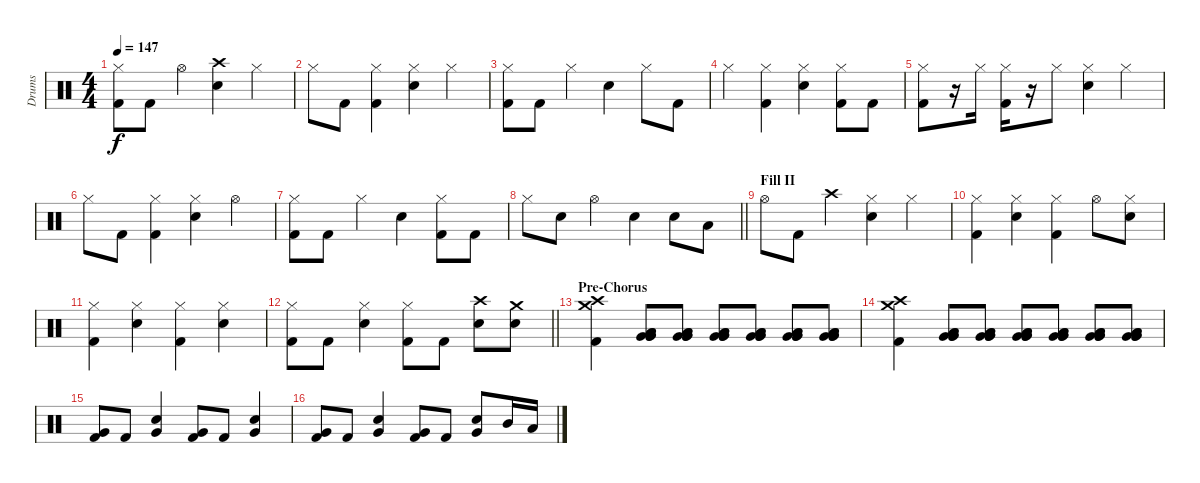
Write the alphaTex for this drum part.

\track ("Drums" "Drums") {instrument percussion}
\staff {score}
\articulation defaults
\ts (4 4)
\tempo 147
\clef neutral
\ks c
("Hi-Hat (closed)" "Kick (hit) 2").8{dy f} "Kick (hit) 2".8 "Hi-Hat (open)".4 ("Crash high (hit)" "Electric Snare (hit)").4 "Hi-Hat (closed)".4 |
"Hi-Hat (closed)".8 "Kick (hit) 2".8 ("Hi-Hat (closed)" "Kick (hit) 2").4 ("Hi-Hat (closed)" "Electric Snare (hit)").4 "Hi-Hat (closed)".4 |
("Hi-Hat (closed)" "Kick (hit) 2").8 "Kick (hit) 2".8 "Hi-Hat (closed)".4 "Electric Snare (hit)".4 "Hi-Hat (closed)".8 "Kick (hit) 2".8 |
"Hi-Hat (closed)".4 ("Hi-Hat (closed)" "Kick (hit) 2").4 ("Hi-Hat (closed)" "Electric Snare (hit)").4 ("Hi-Hat (closed)" "Kick (hit) 2").8 "Kick (hit) 2".8 |
("Hi-Hat (closed)" "Kick (hit) 2").8 r.16 "Hi-Hat (closed)".16 ("Hi-Hat (closed)" "Kick (hit) 2").16 r.16 "Hi-Hat (closed)".8 ("Hi-Hat (closed)" "Electric Snare (hit)").4 "Hi-Hat (closed)".4 |
"Hi-Hat (closed)".8 "Kick (hit) 2".8 ("Hi-Hat (closed)" "Kick (hit) 2").4 ("Hi-Hat (closed)" "Electric Snare (hit)").4 "Hi-Hat (open)".4 |
("Hi-Hat (closed)" "Kick (hit) 2").8 "Kick (hit) 2".8 "Hi-Hat (closed)".4 "Electric Snare (hit)".4 ("Hi-Hat (closed)" "Kick (hit) 2").8 "Kick (hit) 2".8 |
\barLineRight lightlight "Hi-Hat (closed)".8 "Electric Snare (hit)".8 "Hi-Hat (open)".4 "Electric Snare (hit)".4 "Electric Snare (hit)".8 "Low Tom (hit)".8
|
\section ("" "Fill II")
"Hi-Hat (open)".8 "Kick (hit) 2".8 "Crash high (hit)".4 ("Hi-Hat (closed)" "Electric Snare (hit)").4 "Hi-Hat (closed)".4 |
("Hi-Hat (closed)" "Kick (hit) 2").4 ("Hi-Hat (closed)" "Electric Snare (hit)").4 ("Hi-Hat (closed)" "Kick (hit) 2").4 "Hi-Hat (open)".8 ("Hi-Hat (closed)" "Electric Snare (hit)").8 |
("Hi-Hat (closed)" "Kick (hit) 2").4 ("Hi-Hat (closed)" "Electric Snare (hit)").4 ("Hi-Hat (closed)" "Kick (hit) 2").4 ("Hi-Hat (closed)" "Electric Snare (hit)").4 |
\barLineRight lightlight
("Hi-Hat (closed)" "Kick (hit) 2").8 "Kick (hit) 2".8 ("Hi-Hat (closed)" "Electric Snare (hit)").4 ("Hi-Hat (closed)" "Kick (hit) 2").8 "Kick (hit) 2".8 ("Crash high (hit)" "Electric Snare (hit)").8 ("Crash medium (hit)" "Electric Snare (hit)").8 |
\section ("" "Pre-Chorus")
("Crash high (hit)" "Crash medium (hit)" "Kick (hit) 2").4 ("Low Tom (hit)" "Low Tom (hit)" "Very Low Tom (hit)" "Very Low Tom (hit)" "Very Low Tom (hit)").8 ("Low Tom (hit)" "Low Tom (hit)" "Very Low Tom (hit)" "Very Low Tom (hit)" "Very Low Tom (hit)").8 ("Low Tom (hit)" "Low Tom (hit)" "Very Low Tom (hit)" "Very Low Tom (hit)" "Very Low Tom (hit)").8 ("Low Tom (hit)" "Low Tom (hit)" "Very Low Tom (hit)" "Very Low Tom (hit)" "Very Low Tom (hit)").8 ("Low Tom (hit)" "Low Tom (hit)" "Very Low Tom (hit)" "Very Low Tom (hit)" "Very Low Tom (hit)").8 ("Low Tom (hit)" "Low Tom (hit)" "Very Low Tom (hit)" "Very Low Tom (hit)" "Very Low Tom (hit)").8 |
("Crash high (hit)" "Crash medium (hit)" "Kick (hit) 2").4 ("Low Tom (hit)" "Low Tom (hit)" "Very Low Tom (hit)" "Very Low Tom (hit)" "Very Low Tom (hit)").8 ("Low Tom (hit)" "Low Tom (hit)" "Very Low Tom (hit)" "Very Low Tom (hit)" "Very Low Tom (hit)").8 ("Low Tom (hit)" "Low Tom (hit)" "Very Low Tom (hit)" "Very Low Tom (hit)" "Very Low Tom (hit)").8 ("Low Tom (hit)" "Low Tom (hit)" "Very Low Tom (hit)" "Very Low Tom (hit)" "Very Low Tom (hit)").8 ("Low Tom (hit)" "Low Tom (hit)" "Very Low Tom (hit)" "Very Low Tom (hit)" "Very Low Tom (hit)").8 ("Low Tom (hit)" "Low Tom (hit)" "Very Low Tom (hit)" "Very Low Tom (hit)" "Very Low Tom (hit)").8 |
("Very Low Tom (hit)" "Kick (hit) 2").8 "Kick (hit) 2".8 ("Very Low Tom (hit)" "Electric Snare (hit)").4 ("Very Low Tom (hit)" "Kick (hit) 2").8 "Kick (hit) 2".8 ("Very Low Tom (hit)" "Electric Snare (hit)").4 |
("Very Low Tom (hit)" "Kick (hit) 2").8 "Kick (hit) 2".8 ("Very Low Tom (hit)" "Electric Snare (hit)").4 ("Very Low Tom (hit)" "Kick (hit) 2").8 "Kick (hit) 2".8 ("Very Low Tom (hit)" "Electric Snare (hit)").8 "Mid Tom (hit)".16 "Low Tom (hit)".16
